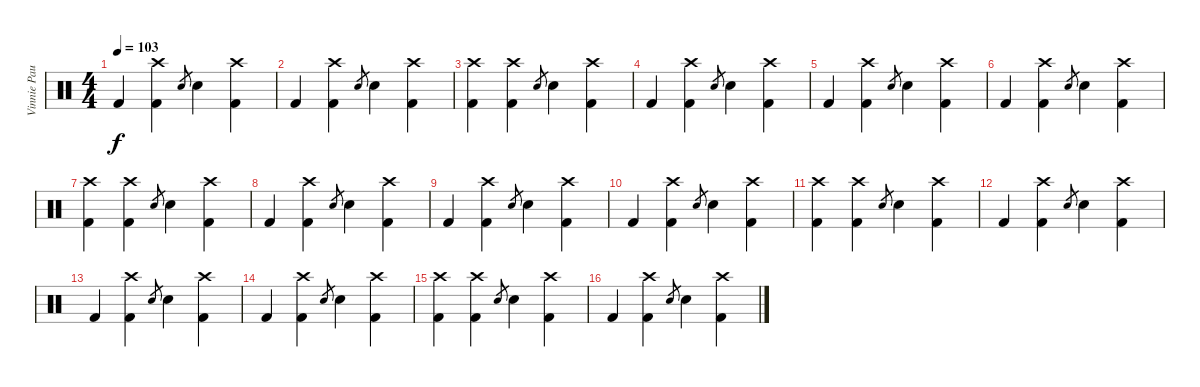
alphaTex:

\track ("Vinnie Paul" "Vinnie Pau") {instrument percussion}
\staff {score}
\articulation defaults
\ts (4 4)
\tempo 103
\clef neutral
\ks c "Kick (hit) 2".4{dy f}
("Crash high (hit)" "Kick (hit) 2").4 "Electric Snare (hit)".8{gr} "Electric Snare (hit)".4 ("Crash high (hit)" "Kick (hit) 2").4 |
"Kick (hit) 2".4 ("Crash high (hit)" "Kick (hit) 2").4 "Electric Snare (hit)".8{gr} "Electric Snare (hit)".4 ("Crash high (hit)" "Kick (hit) 2").4 |
("Crash high (hit)" "Kick (hit) 2").4 ("Crash high (hit)" "Kick (hit) 2").4 "Electric Snare (hit)".8{gr} "Electric Snare (hit)".4 ("Crash high (hit)" "Kick (hit) 2").4 |
"Kick (hit) 2".4 ("Crash high (hit)" "Kick (hit) 2").4 "Electric Snare (hit)".8{gr} "Electric Snare (hit)".4 ("Crash high (hit)" "Kick (hit) 2").4 |
"Kick (hit) 2".4 ("Crash high (hit)" "Kick (hit) 2").4 "Electric Snare (hit)".8{gr} "Electric Snare (hit)".4 ("Crash high (hit)" "Kick (hit) 2").4 |
"Kick (hit) 2".4 ("Crash high (hit)" "Kick (hit) 2").4 "Electric Snare (hit)".8{gr} "Electric Snare (hit)".4 ("Crash high (hit)" "Kick (hit) 2").4 |
("Crash high (hit)" "Kick (hit) 2").4 ("Crash high (hit)" "Kick (hit) 2").4 "Electric Snare (hit)".8{gr} "Electric Snare (hit)".4 ("Crash high (hit)" "Kick (hit) 2").4 |
"Kick (hit) 2".4 ("Crash high (hit)" "Kick (hit) 2").4 "Electric Snare (hit)".8{gr} "Electric Snare (hit)".4 ("Crash high (hit)" "Kick (hit) 2").4 |
"Kick (hit) 2".4 ("Crash high (hit)" "Kick (hit) 2").4 "Electric Snare (hit)".8{gr} "Electric Snare (hit)".4 ("Crash high (hit)" "Kick (hit) 2").4 |
"Kick (hit) 2".4 ("Crash high (hit)" "Kick (hit) 2").4 "Electric Snare (hit)".8{gr} "Electric Snare (hit)".4 ("Crash high (hit)" "Kick (hit) 2").4 |
("Crash high (hit)" "Kick (hit) 2").4 ("Crash high (hit)" "Kick (hit) 2").4 "Electric Snare (hit)".8{gr} "Electric Snare (hit)".4 ("Crash high (hit)" "Kick (hit) 2").4 |
"Kick (hit) 2".4 ("Crash high (hit)" "Kick (hit) 2").4 "Electric Snare (hit)".8{gr} "Electric Snare (hit)".4 ("Crash high (hit)" "Kick (hit) 2").4 |
"Kick (hit) 2".4 ("Crash high (hit)" "Kick (hit) 2").4 "Electric Snare (hit)".8{gr} "Electric Snare (hit)".4 ("Crash high (hit)" "Kick (hit) 2").4 |
"Kick (hit) 2".4 ("Crash high (hit)" "Kick (hit) 2").4 "Electric Snare (hit)".8{gr} "Electric Snare (hit)".4 ("Crash high (hit)" "Kick (hit) 2").4 |
("Crash high (hit)" "Kick (hit) 2").4{volume 6} ("Crash high (hit)" "Kick (hit) 2").4 "Electric Snare (hit)".8{gr} "Electric Snare (hit)".4 ("Crash high (hit)" "Kick (hit) 2").4 |
"Kick (hit) 2".4 ("Crash high (hit)" "Kick (hit) 2").4 "Electric Snare (hit)".8{gr} "Electric Snare (hit)".4 ("Crash high (hit)" "Kick (hit) 2").4
